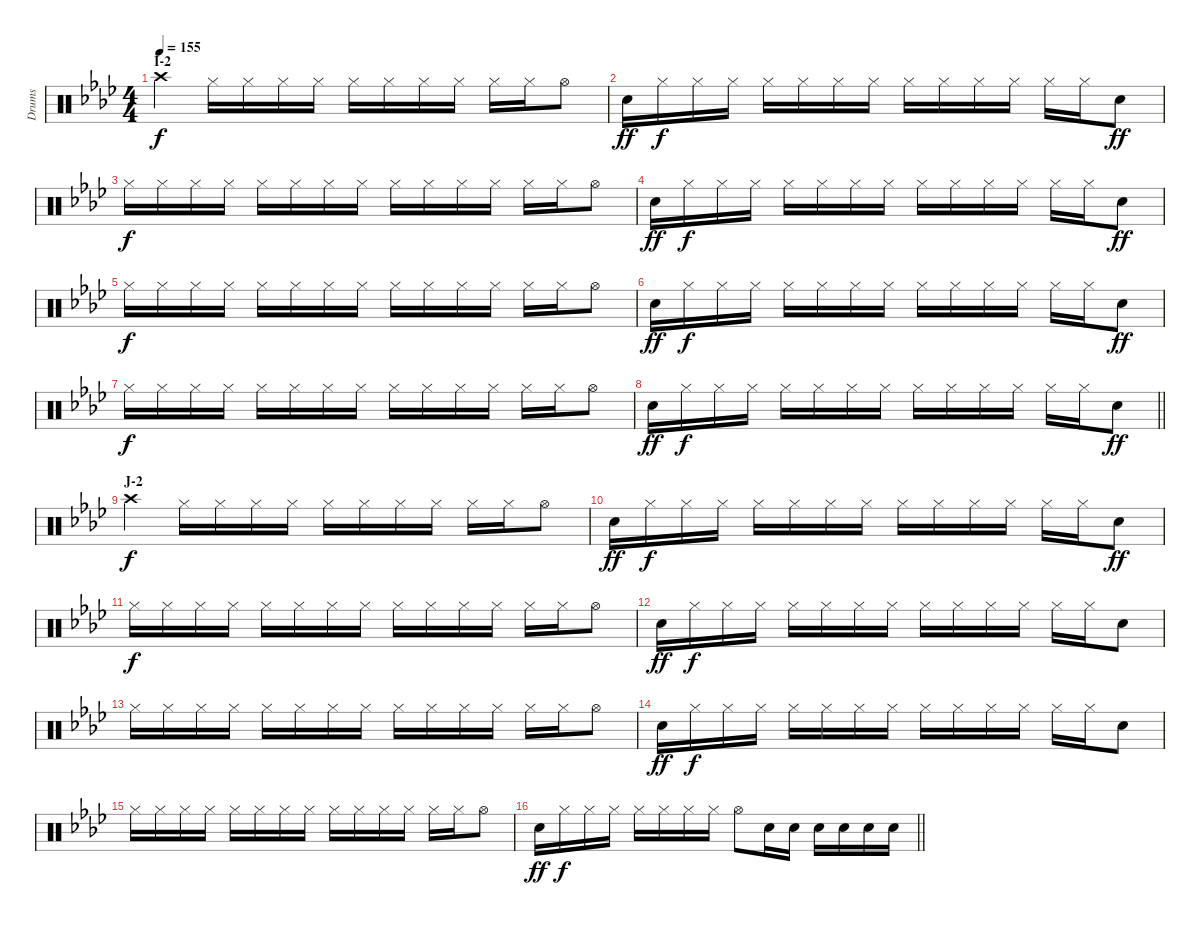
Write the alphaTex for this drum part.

\track ("Drums" "Drums") {instrument percussion}
\staff {score}
\articulation defaults
\ts (4 4)
\section ("" "I-2")
\tempo 155
\clef neutral
\ks ab "Crash high (hit)".4{dy f} "Hi-Hat (closed)".16 "Hi-Hat (closed)".16 "Hi-Hat (closed)".16 "Hi-Hat (closed)".16 "Hi-Hat (closed)".16 "Hi-Hat (closed)".16 "Hi-Hat (closed)".16 "Hi-Hat (closed)".16 "Hi-Hat (closed)".16 "Hi-Hat (closed)".16 "Hi-Hat (open)".8
|
"Snare (hit) 2".16{dy ff} "Hi-Hat (closed)".16{dy f} "Hi-Hat (closed)".16 "Hi-Hat (closed)".16 "Hi-Hat (closed)".16 "Hi-Hat (closed)".16 "Hi-Hat (closed)".16 "Hi-Hat (closed)".16 "Hi-Hat (closed)".16 "Hi-Hat (closed)".16 "Hi-Hat (closed)".16 "Hi-Hat (closed)".16 "Hi-Hat (closed)".16 "Hi-Hat (closed)".16 "Snare (hit) 2".8{dy ff} |
"Hi-Hat (closed)".16{dy f} "Hi-Hat (closed)".16 "Hi-Hat (closed)".16 "Hi-Hat (closed)".16 "Hi-Hat (closed)".16 "Hi-Hat (closed)".16 "Hi-Hat (closed)".16 "Hi-Hat (closed)".16 "Hi-Hat (closed)".16 "Hi-Hat (closed)".16 "Hi-Hat (closed)".16 "Hi-Hat (closed)".16 "Hi-Hat (closed)".16 "Hi-Hat (closed)".16 "Hi-Hat (open)".8 |
"Snare (hit) 2".16{dy ff} "Hi-Hat (closed)".16{dy f} "Hi-Hat (closed)".16 "Hi-Hat (closed)".16 "Hi-Hat (closed)".16 "Hi-Hat (closed)".16 "Hi-Hat (closed)".16 "Hi-Hat (closed)".16 "Hi-Hat (closed)".16 "Hi-Hat (closed)".16 "Hi-Hat (closed)".16 "Hi-Hat (closed)".16 "Hi-Hat (closed)".16 "Hi-Hat (closed)".16 "Snare (hit) 2".8{dy ff} |
"Hi-Hat (closed)".16{dy f} "Hi-Hat (closed)".16 "Hi-Hat (closed)".16 "Hi-Hat (closed)".16 "Hi-Hat (closed)".16 "Hi-Hat (closed)".16 "Hi-Hat (closed)".16 "Hi-Hat (closed)".16 "Hi-Hat (closed)".16 "Hi-Hat (closed)".16 "Hi-Hat (closed)".16 "Hi-Hat (closed)".16 "Hi-Hat (closed)".16 "Hi-Hat (closed)".16 "Hi-Hat (open)".8 |
"Snare (hit) 2".16{dy ff} "Hi-Hat (closed)".16{dy f} "Hi-Hat (closed)".16 "Hi-Hat (closed)".16 "Hi-Hat (closed)".16 "Hi-Hat (closed)".16 "Hi-Hat (closed)".16 "Hi-Hat (closed)".16 "Hi-Hat (closed)".16 "Hi-Hat (closed)".16 "Hi-Hat (closed)".16 "Hi-Hat (closed)".16 "Hi-Hat (closed)".16 "Hi-Hat (closed)".16 "Snare (hit) 2".8{dy ff} |
"Hi-Hat (closed)".16{dy f} "Hi-Hat (closed)".16 "Hi-Hat (closed)".16 "Hi-Hat (closed)".16 "Hi-Hat (closed)".16 "Hi-Hat (closed)".16 "Hi-Hat (closed)".16 "Hi-Hat (closed)".16 "Hi-Hat (closed)".16 "Hi-Hat (closed)".16 "Hi-Hat (closed)".16 "Hi-Hat (closed)".16 "Hi-Hat (closed)".16 "Hi-Hat (closed)".16 "Hi-Hat (open)".8 |
\barLineRight lightlight "Snare (hit) 2".16{dy ff} "Hi-Hat (closed)".16{dy f} "Hi-Hat (closed)".16 "Hi-Hat (closed)".16 "Hi-Hat (closed)".16 "Hi-Hat (closed)".16 "Hi-Hat (closed)".16 "Hi-Hat (closed)".16 "Hi-Hat (closed)".16 "Hi-Hat (closed)".16 "Hi-Hat (closed)".16 "Hi-Hat (closed)".16 "Hi-Hat (closed)".16 "Hi-Hat (closed)".16 "Snare (hit) 2".8{dy ff}
|
\section ("" "J-2")
"Crash high (hit)".4{dy f} "Hi-Hat (closed)".16 "Hi-Hat (closed)".16 "Hi-Hat (closed)".16 "Hi-Hat (closed)".16 "Hi-Hat (closed)".16 "Hi-Hat (closed)".16 "Hi-Hat (closed)".16 "Hi-Hat (closed)".16 "Hi-Hat (closed)".16 "Hi-Hat (closed)".16 "Hi-Hat (open)".8 |
"Snare (hit) 2".16{dy ff} "Hi-Hat (closed)".16{dy f} "Hi-Hat (closed)".16 "Hi-Hat (closed)".16 "Hi-Hat (closed)".16 "Hi-Hat (closed)".16 "Hi-Hat (closed)".16 "Hi-Hat (closed)".16 "Hi-Hat (closed)".16 "Hi-Hat (closed)".16 "Hi-Hat (closed)".16 "Hi-Hat (closed)".16 "Hi-Hat (closed)".16 "Hi-Hat (closed)".16 "Snare (hit) 2".8{dy ff} |
"Hi-Hat (closed)".16{dy f} "Hi-Hat (closed)".16 "Hi-Hat (closed)".16 "Hi-Hat (closed)".16 "Hi-Hat (closed)".16 "Hi-Hat (closed)".16 "Hi-Hat (closed)".16 "Hi-Hat (closed)".16 "Hi-Hat (closed)".16 "Hi-Hat (closed)".16 "Hi-Hat (closed)".16 "Hi-Hat (closed)".16 "Hi-Hat (closed)".16 "Hi-Hat (closed)".16 "Hi-Hat (open)".8 |
"Snare (hit) 2".16{dy ff} "Hi-Hat (closed)".16{dy f} "Hi-Hat (closed)".16 "Hi-Hat (closed)".16 "Hi-Hat (closed)".16 "Hi-Hat (closed)".16 "Hi-Hat (closed)".16 "Hi-Hat (closed)".16 "Hi-Hat (closed)".16 "Hi-Hat (closed)".16 "Hi-Hat (closed)".16 "Hi-Hat (closed)".16 "Hi-Hat (closed)".16 "Hi-Hat (closed)".16 "Snare (hit) 2".8 |
"Hi-Hat (closed)".16 "Hi-Hat (closed)".16 "Hi-Hat (closed)".16 "Hi-Hat (closed)".16 "Hi-Hat (closed)".16 "Hi-Hat (closed)".16 "Hi-Hat (closed)".16 "Hi-Hat (closed)".16 "Hi-Hat (closed)".16 "Hi-Hat (closed)".16 "Hi-Hat (closed)".16 "Hi-Hat (closed)".16 "Hi-Hat (closed)".16 "Hi-Hat (closed)".16 "Hi-Hat (open)".8 |
"Snare (hit) 2".16{dy ff} "Hi-Hat (closed)".16{dy f} "Hi-Hat (closed)".16 "Hi-Hat (closed)".16 "Hi-Hat (closed)".16 "Hi-Hat (closed)".16 "Hi-Hat (closed)".16 "Hi-Hat (closed)".16 "Hi-Hat (closed)".16 "Hi-Hat (closed)".16 "Hi-Hat (closed)".16 "Hi-Hat (closed)".16 "Hi-Hat (closed)".16 "Hi-Hat (closed)".16 "Snare (hit) 2".8 |
"Hi-Hat (closed)".16 "Hi-Hat (closed)".16 "Hi-Hat (closed)".16 "Hi-Hat (closed)".16 "Hi-Hat (closed)".16 "Hi-Hat (closed)".16 "Hi-Hat (closed)".16 "Hi-Hat (closed)".16 "Hi-Hat (closed)".16 "Hi-Hat (closed)".16 "Hi-Hat (closed)".16 "Hi-Hat (closed)".16 "Hi-Hat (closed)".16 "Hi-Hat (closed)".16 "Hi-Hat (open)".8 |
\barLineRight lightlight "Snare (hit) 2".16{dy ff} "Hi-Hat (closed)".16{dy f} "Hi-Hat (closed)".16 "Hi-Hat (closed)".16 "Hi-Hat (closed)".16 "Hi-Hat (closed)".16 "Hi-Hat (closed)".16 "Hi-Hat (closed)".16 "Hi-Hat (open)".8 "Snare (hit) 2".16 "Snare (hit) 2".16 "Snare (hit) 2".16 "Snare (hit) 2".16 "Snare (hit) 2".16 "Snare (hit) 2".16
